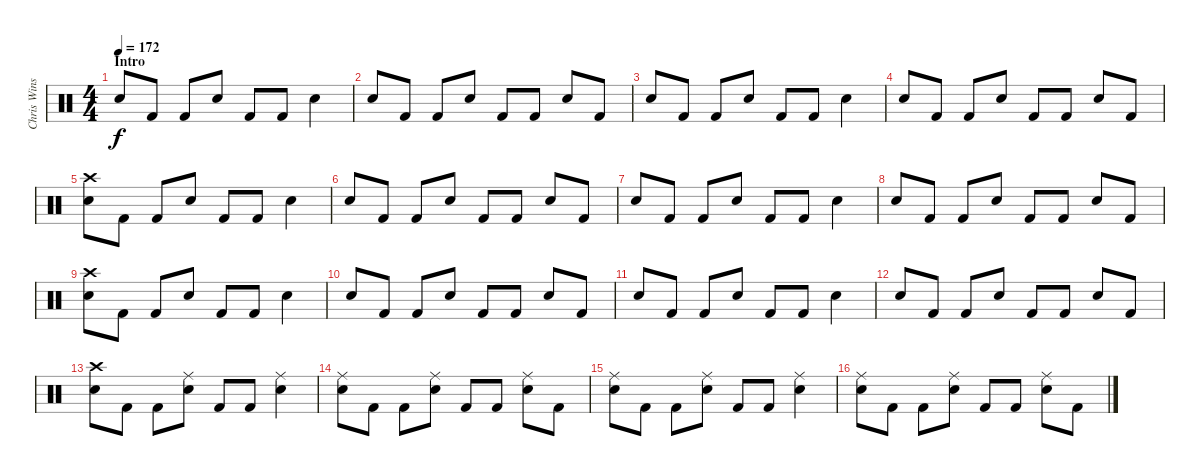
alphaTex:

\track ("Chris Winship (Drums)" "Chris Wins") {instrument percussion}
\staff {score}
\articulation defaults
\ts (4 4)
\section ("" "Intro")
\tempo 172
\tempo 167
\tempo 172
\clef neutral
\ks c "Electric Snare (hit)".8{dy f} "Kick (hit) 2".8 "Kick (hit) 2".8 "Electric Snare (hit)".8 "Kick (hit) 2".8 "Kick (hit) 2".8 "Electric Snare (hit)".4
|
"Electric Snare (hit)".8 "Kick (hit) 2".8 "Kick (hit) 2".8 "Electric Snare (hit)".8 "Kick (hit) 2".8 "Kick (hit) 2".8 "Electric Snare (hit)".8 "Kick (hit) 2".8 |
"Electric Snare (hit)".8 "Kick (hit) 2".8 "Kick (hit) 2".8 "Electric Snare (hit)".8 "Kick (hit) 2".8 "Kick (hit) 2".8 "Electric Snare (hit)".4 |
"Electric Snare (hit)".8 "Kick (hit) 2".8 "Kick (hit) 2".8 "Electric Snare (hit)".8 "Kick (hit) 2".8 "Kick (hit) 2".8 "Electric Snare (hit)".8 "Kick (hit) 2".8 |
("Electric Snare (hit)" "Crash high (hit)").8 "Kick (hit) 2".8 "Kick (hit) 2".8 "Electric Snare (hit)".8 "Kick (hit) 2".8 "Kick (hit) 2".8 "Electric Snare (hit)".4 |
"Electric Snare (hit)".8 "Kick (hit) 2".8 "Kick (hit) 2".8 "Electric Snare (hit)".8 "Kick (hit) 2".8 "Kick (hit) 2".8 "Electric Snare (hit)".8 "Kick (hit) 2".8 |
"Electric Snare (hit)".8 "Kick (hit) 2".8 "Kick (hit) 2".8 "Electric Snare (hit)".8 "Kick (hit) 2".8 "Kick (hit) 2".8 "Electric Snare (hit)".4 |
"Electric Snare (hit)".8 "Kick (hit) 2".8 "Kick (hit) 2".8 "Electric Snare (hit)".8 "Kick (hit) 2".8 "Kick (hit) 2".8 "Electric Snare (hit)".8 "Kick (hit) 2".8 |
("Electric Snare (hit)" "Crash high (hit)").8 "Kick (hit) 2".8 "Kick (hit) 2".8 "Electric Snare (hit)".8 "Kick (hit) 2".8 "Kick (hit) 2".8 "Electric Snare (hit)".4 |
"Electric Snare (hit)".8 "Kick (hit) 2".8 "Kick (hit) 2".8 "Electric Snare (hit)".8 "Kick (hit) 2".8 "Kick (hit) 2".8 "Electric Snare (hit)".8 "Kick (hit) 2".8 |
"Electric Snare (hit)".8 "Kick (hit) 2".8 "Kick (hit) 2".8 "Electric Snare (hit)".8 "Kick (hit) 2".8 "Kick (hit) 2".8 "Electric Snare (hit)".4 |
"Electric Snare (hit)".8 "Kick (hit) 2".8 "Kick (hit) 2".8 "Electric Snare (hit)".8 "Kick (hit) 2".8 "Kick (hit) 2".8 "Electric Snare (hit)".8 "Kick (hit) 2".8 |
("Electric Snare (hit)" "Crash high (hit)").8 "Kick (hit) 2".8 "Kick (hit) 2".8 ("Electric Snare (hit)" "Ride (middle)").8 "Kick (hit) 2".8 "Kick (hit) 2".8 ("Electric Snare (hit)" "Ride (middle)").4 |
("Electric Snare (hit)" "Ride (middle)").8 "Kick (hit) 2".8 "Kick (hit) 2".8 ("Electric Snare (hit)" "Ride (middle)").8 "Kick (hit) 2".8 "Kick (hit) 2".8 ("Electric Snare (hit)" "Ride (middle)").8 "Kick (hit) 2".8 |
("Electric Snare (hit)" "Ride (middle)").8 "Kick (hit) 2".8 "Kick (hit) 2".8 ("Electric Snare (hit)" "Ride (middle)").8 "Kick (hit) 2".8 "Kick (hit) 2".8 ("Electric Snare (hit)" "Ride (middle)").4 |
("Electric Snare (hit)" "Ride (middle)").8 "Kick (hit) 2".8 "Kick (hit) 2".8 ("Electric Snare (hit)" "Ride (middle)").8 "Kick (hit) 2".8 "Kick (hit) 2".8 ("Electric Snare (hit)" "Ride (middle)").8 "Kick (hit) 2".8
